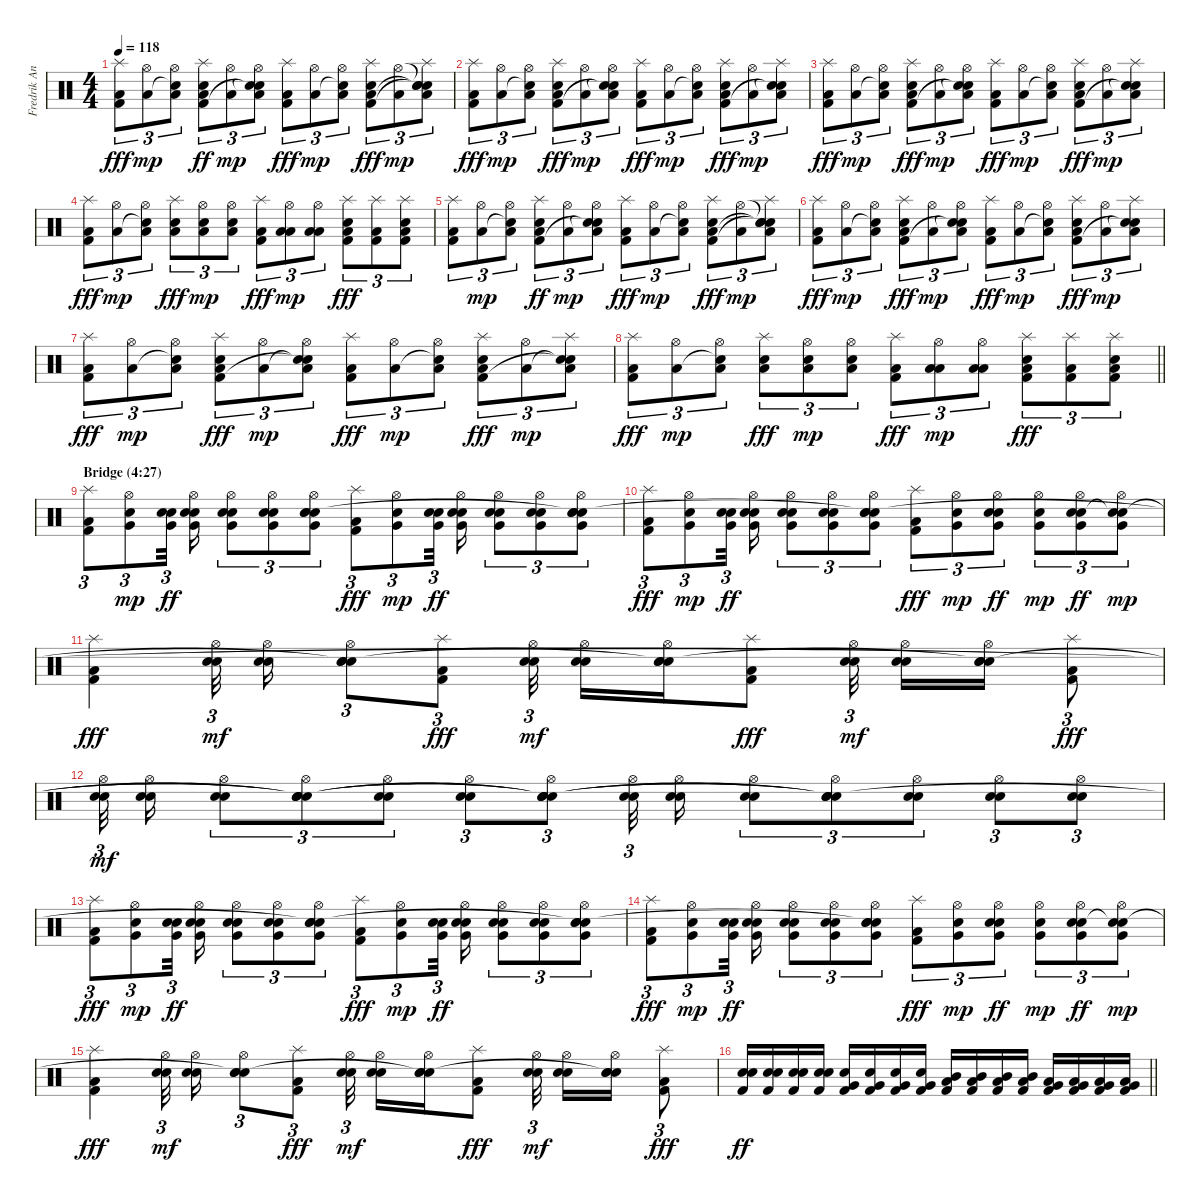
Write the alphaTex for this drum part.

\track ("Fredrik Andersson " "Fredrik An") {instrument percussion}
\staff {score}
\articulation defaults
\ts (4 4)
\tempo 118
\clef neutral
\ks c
("Splash (hit)" "Kick (hit) 2" "Low Floor Tom (hit)").8{tu (3 2) dy fff} ("Hi-Hat (open)" "Low Floor Tom (hit)").8{tu (3 2) dy mp} ("Hi-Hat (open)" "Snare (hit)"{t} "Low Floor Tom (hit)").8{tu (3 2)} ("Splash (hit)" "Snare (hit) 2" "Kick (hit) 2" "Low Floor Tom (hit)").8{tu (3 2) dy ff} ("Hi-Hat (open)" "Low Floor Tom (hit)").8{tu (3 2) dy mp} ("Hi-Hat (open)" "Snare (hit)"{t} "Snare (hit)"{t} "Low Floor Tom (hit)").8{tu (3 2)} ("Splash (hit)" "Kick (hit) 2" "Low Floor Tom (hit)").8{tu (3 2) dy fff} ("Hi-Hat (open)" "Low Floor Tom (hit)").8{tu (3 2) dy mp} ("Hi-Hat (open)" "Snare (hit)"{t} "Low Floor Tom (hit)").8{tu (3 2)} ("Splash (hit)" "Snare (hit) 2" "Kick (hit) 2" "Low Floor Tom (hit)").8{tu (3 2) dy fff} ("Hi-Hat (open)" "Low Floor Tom (hit)").8{tu (3 2) dy mp} ("Snare (hit)"{t} "Splash (hit)" "Snare (hit)"{t} "Snare (hit)"{t} "Low Floor Tom (hit)").8{tu (3 2)} |
("Splash (hit)" "Kick (hit) 2" "Low Floor Tom (hit)").8{tu (3 2) dy fff} ("Hi-Hat (open)" "Low Floor Tom (hit)").8{tu (3 2) dy mp} ("Hi-Hat (open)" "Snare (hit)"{t} "Low Floor Tom (hit)").8{tu (3 2)} ("Splash (hit)" "Snare (hit) 2" "Kick (hit) 2" "Low Floor Tom (hit)").8{tu (3 2) dy fff} ("Hi-Hat (open)" "Low Floor Tom (hit)").8{tu (3 2) dy mp} ("Hi-Hat (open)" "Snare (hit)"{t} "Snare (hit)"{t} "Low Floor Tom (hit)").8{tu (3 2)} ("Splash (hit)" "Kick (hit) 2" "Low Floor Tom (hit)").8{tu (3 2) dy fff} ("Hi-Hat (open)" "Low Floor Tom (hit)").8{tu (3 2) dy mp} ("Hi-Hat (open)" "Snare (hit)"{t} "Low Floor Tom (hit)").8{tu (3 2)} ("Splash (hit)" "Snare (hit) 2" "Kick (hit) 2" "Low Floor Tom (hit)").8{tu (3 2) dy fff} ("Hi-Hat (open)" "Low Floor Tom (hit)").8{tu (3 2) dy mp} ("Splash (hit)" "Snare (hit)"{t} "Snare (hit)"{t} "Low Floor Tom (hit)").8{tu (3 2)} |
("Splash (hit)" "Kick (hit) 2" "Low Floor Tom (hit)").8{tu (3 2) dy fff} ("Hi-Hat (open)" "Low Floor Tom (hit)").8{tu (3 2) dy mp} ("Hi-Hat (open)" "Snare (hit)"{t} "Low Floor Tom (hit)").8{tu (3 2)} ("Splash (hit)" "Snare (hit) 2" "Kick (hit) 2" "Low Floor Tom (hit)").8{tu (3 2) dy fff} ("Hi-Hat (open)" "Low Floor Tom (hit)").8{tu (3 2) dy mp} ("Hi-Hat (open)" "Snare (hit)"{t} "Snare (hit)"{t} "Low Floor Tom (hit)").8{tu (3 2)} ("Splash (hit)" "Kick (hit) 2" "Low Floor Tom (hit)").8{tu (3 2) dy fff} ("Hi-Hat (open)" "Low Floor Tom (hit)").8{tu (3 2) dy mp} ("Hi-Hat (open)" "Snare (hit)"{t} "Low Floor Tom (hit)").8{tu (3 2)} ("Splash (hit)" "Snare (hit) 2" "Kick (hit) 2" "Low Floor Tom (hit)").8{tu (3 2) dy fff} ("Hi-Hat (open)" "Low Floor Tom (hit)").8{tu (3 2) dy mp} ("Splash (hit)" "Snare (hit)"{t} "Snare (hit)"{t} "Low Floor Tom (hit)").8{tu (3 2)} |
("Splash (hit)" "Kick (hit) 2" "Low Floor Tom (hit)").8{tu (3 2) dy fff} ("Hi-Hat (open)" "Low Floor Tom (hit)").8{tu (3 2) dy mp} ("Hi-Hat (open)" "Snare (hit)"{t} "Low Floor Tom (hit)").8{tu (3 2)} ("Splash (hit)" "Snare (hit) 2" "Low Floor Tom (hit)").8{tu (3 2) dy fff} ("Hi-Hat (open)" "Snare (hit) 2" "Low Floor Tom (hit)").8{tu (3 2) dy mp} ("Hi-Hat (open)" "Snare (hit) 2" "Low Floor Tom (hit)").8{tu (3 2)} ("Splash (hit)" "Kick (hit) 2" "Low Floor Tom (hit)").8{tu (3 2) dy fff} ("Hi-Hat (open)" "Low Tom (hit)" "Low Floor Tom (hit)").8{tu (3 2) dy mp} ("Hi-Hat (open)" "Low Tom (hit)" "Low Floor Tom (hit)").8{tu (3 2)} ("Splash (hit)" "Snare (hit) 2" "Kick (hit) 2" "Low Floor Tom (hit)").8{tu (3 2) dy fff} ("Splash (hit)" "Kick (hit) 2" "Low Floor Tom (hit)").8{tu (3 2)} ("Splash (hit)" "Snare (hit) 2" "Kick (hit) 2" "Low Floor Tom (hit)").8{tu (3 2)} |
("Splash (hit)" "Kick (hit) 2" "Low Floor Tom (hit)").8{tu (3 2)} ("Hi-Hat (open)" "Low Floor Tom (hit)").8{tu (3 2) dy mp} ("Hi-Hat (open)" "Snare (hit)"{t} "Low Floor Tom (hit)").8{tu (3 2)} ("Splash (hit)" "Snare (hit) 2" "Kick (hit) 2" "Low Floor Tom (hit)").8{tu (3 2) dy ff} ("Hi-Hat (open)" "Low Floor Tom (hit)").8{tu (3 2) dy mp} ("Hi-Hat (open)" "Snare (hit)"{t} "Snare (hit)"{t} "Low Floor Tom (hit)").8{tu (3 2)} ("Splash (hit)" "Kick (hit) 2" "Low Floor Tom (hit)").8{tu (3 2) dy fff} ("Hi-Hat (open)" "Low Floor Tom (hit)").8{tu (3 2) dy mp} ("Hi-Hat (open)" "Snare (hit)"{t} "Low Floor Tom (hit)").8{tu (3 2)} ("Splash (hit)" "Snare (hit) 2" "Kick (hit) 2" "Low Floor Tom (hit)").8{tu (3 2) dy fff} ("Hi-Hat (open)" "Low Floor Tom (hit)").8{tu (3 2) dy mp} ("Snare (hit)"{t} "Splash (hit)" "Snare (hit)"{t} "Snare (hit)"{t} "Low Floor Tom (hit)").8{tu (3 2)} |
("Splash (hit)" "Kick (hit) 2" "Low Floor Tom (hit)").8{tu (3 2) dy fff} ("Hi-Hat (open)" "Low Floor Tom (hit)").8{tu (3 2) dy mp} ("Hi-Hat (open)" "Snare (hit)"{t} "Low Floor Tom (hit)").8{tu (3 2)} ("Splash (hit)" "Snare (hit) 2" "Kick (hit) 2" "Low Floor Tom (hit)").8{tu (3 2) dy fff} ("Hi-Hat (open)" "Low Floor Tom (hit)").8{tu (3 2) dy mp} ("Hi-Hat (open)" "Snare (hit)"{t} "Snare (hit)"{t} "Low Floor Tom (hit)").8{tu (3 2)} ("Splash (hit)" "Kick (hit) 2" "Low Floor Tom (hit)").8{tu (3 2) dy fff} ("Hi-Hat (open)" "Low Floor Tom (hit)").8{tu (3 2) dy mp} ("Hi-Hat (open)" "Snare (hit)"{t} "Low Floor Tom (hit)").8{tu (3 2)} ("Splash (hit)" "Snare (hit) 2" "Kick (hit) 2" "Low Floor Tom (hit)").8{tu (3 2) dy fff} ("Hi-Hat (open)" "Low Floor Tom (hit)").8{tu (3 2) dy mp} ("Splash (hit)" "Snare (hit)"{t} "Snare (hit)"{t} "Low Floor Tom (hit)").8{tu (3 2)} |
("Splash (hit)" "Kick (hit) 2" "Low Floor Tom (hit)").8{tu (3 2) dy fff} ("Hi-Hat (open)" "Low Floor Tom (hit)").8{tu (3 2) dy mp} ("Hi-Hat (open)" "Snare (hit)"{t} "Low Floor Tom (hit)").8{tu (3 2)} ("Splash (hit)" "Snare (hit) 2" "Kick (hit) 2" "Low Floor Tom (hit)").8{tu (3 2) dy fff} ("Hi-Hat (open)" "Low Floor Tom (hit)").8{tu (3 2) dy mp} ("Hi-Hat (open)" "Snare (hit)"{t} "Snare (hit)"{t} "Low Floor Tom (hit)").8{tu (3 2)} ("Splash (hit)" "Kick (hit) 2" "Low Floor Tom (hit)").8{tu (3 2) dy fff} ("Hi-Hat (open)" "Low Floor Tom (hit)").8{tu (3 2) dy mp} ("Hi-Hat (open)" "Snare (hit)"{t} "Low Floor Tom (hit)").8{tu (3 2)} ("Splash (hit)" "Snare (hit) 2" "Kick (hit) 2" "Low Floor Tom (hit)").8{tu (3 2) dy fff} ("Hi-Hat (open)" "Low Floor Tom (hit)").8{tu (3 2) dy mp} ("Splash (hit)" "Snare (hit)"{t} "Snare (hit)"{t} "Low Floor Tom (hit)").8{tu (3 2)} |
\barLineRight lightlight
("Splash (hit)" "Kick (hit) 2" "Low Floor Tom (hit)").8{tu (3 2) dy fff} ("Hi-Hat (open)" "Low Floor Tom (hit)").8{tu (3 2) dy mp} ("Hi-Hat (open)" "Snare (hit)"{t} "Low Floor Tom (hit)").8{tu (3 2)} ("Splash (hit)" "Snare (hit) 2" "Low Floor Tom (hit)").8{tu (3 2) dy fff} ("Hi-Hat (open)" "Snare (hit) 2" "Low Floor Tom (hit)").8{tu (3 2) dy mp} ("Hi-Hat (open)" "Snare (hit) 2" "Low Floor Tom (hit)").8{tu (3 2)} ("Splash (hit)" "Kick (hit) 2" "Low Floor Tom (hit)").8{tu (3 2) dy fff} ("Hi-Hat (open)" "Low Tom (hit)" "Low Floor Tom (hit)").8{tu (3 2) dy mp} ("Hi-Hat (open)" "Low Tom (hit)" "Low Floor Tom (hit)").8{tu (3 2)} ("Splash (hit)" "Snare (hit) 2" "Kick (hit) 2" "Low Floor Tom (hit)").8{tu (3 2) dy fff} ("Splash (hit)" "Kick (hit) 2" "Low Floor Tom (hit)").8{tu (3 2)} ("Splash (hit)" "Snare (hit) 2" "Kick (hit) 2" "Low Floor Tom (hit)").8{tu (3 2)} |
\section ("" "Bridge (4:27)")
("Splash (hit)" "Kick (hit) 2" "Low Floor Tom (hit)").8{tu (3 2)} ("Hi-Hat (open)" "Very Low Tom (hit)" "Snare (hit) 2").8{tu (3 2) dy mp} ("Very Low Tom (hit)" "Snare (hit) 2" "Electric Snare (hit)").32{tu (3 2) dy ff beam splitsecondary} ("Hi-Hat (open)" "Very Low Tom (hit)" "Snare (hit) 2" "Electric Snare (hit)").16 ("Hi-Hat (open)" "Very Low Tom (hit)" "Snare (hit) 2" "Electric Snare (hit)").8{tu (3 2)} ("Hi-Hat (open)" "Very Low Tom (hit)" "Snare (hit) 2" "Electric Snare (hit)").8{tu (3 2)} ("Hi-Hat (open)" "Very Low Tom (hit)" "Snare (hit) 2" "Electric Snare (hit)" "Snare (hit)").8{tu (3 2)} ("Splash (hit)" "Kick (hit) 2" "Low Floor Tom (hit)").8{tu (3 2) dy fff} ("Hi-Hat (open)" "Very Low Tom (hit)" "Snare (hit) 2").8{tu (3 2) dy mp} ("Very Low Tom (hit)" "Snare (hit) 2" "Electric Snare (hit)").32{tu (3 2) dy ff beam splitsecondary} ("Hi-Hat (open)" "Very Low Tom (hit)" "Snare (hit) 2" "Electric Snare (hit)").16 ("Hi-Hat (open)" "Very Low Tom (hit)" "Snare (hit) 2" "Electric Snare (hit)").8{tu (3 2)} ("Hi-Hat (open)" "Very Low Tom (hit)" "Snare (hit) 2" "Electric Snare (hit)").8{tu (3 2)} ("Hi-Hat (open)" "Very Low Tom (hit)" "Snare (hit) 2" "Electric Snare (hit)" "Snare (hit)"{t}).8{tu (3 2)} |
("Splash (hit)" "Kick (hit) 2" "Low Floor Tom (hit)").8{tu (3 2) dy fff} ("Hi-Hat (open)" "Very Low Tom (hit)" "Snare (hit) 2").8{tu (3 2) dy mp} ("Very Low Tom (hit)" "Snare (hit) 2" "Electric Snare (hit)").32{tu (3 2) dy ff beam splitsecondary} ("Hi-Hat (open)" "Very Low Tom (hit)" "Snare (hit) 2" "Electric Snare (hit)").16 ("Hi-Hat (open)" "Very Low Tom (hit)" "Snare (hit) 2" "Electric Snare (hit)").8{tu (3 2)} ("Hi-Hat (open)" "Very Low Tom (hit)" "Snare (hit) 2" "Electric Snare (hit)").8{tu (3 2)} ("Hi-Hat (open)" "Very Low Tom (hit)" "Snare (hit) 2" "Electric Snare (hit)" "Snare (hit)"{t}).8{tu (3 2)} ("Splash (hit)" "Kick (hit) 2" "Low Floor Tom (hit)").8{tu (3 2) dy fff} ("Hi-Hat (open)" "Very Low Tom (hit)" "Snare (hit) 2").8{tu (3 2) dy mp} ("Hi-Hat (open)" "Very Low Tom (hit)" "Snare (hit) 2" "Electric Snare (hit)").8{tu (3 2) dy ff} ("Hi-Hat (open)" "Very Low Tom (hit)" "Snare (hit) 2").8{tu (3 2) dy mp} ("Hi-Hat (open)" "Very Low Tom (hit)" "Snare (hit) 2" "Electric Snare (hit)").8{tu (3 2) dy ff} ("Hi-Hat (open)" "Very Low Tom (hit)" "Snare (hit) 2" "Snare (hit)"{t}).8{tu (3 2) dy mp} |
("Splash (hit)" "Kick (hit) 2" "Low Floor Tom (hit)").4{dy fff} ("Hi-Hat (open)" "Snare (hit) 2" "Electric Snare (hit)").32{tu (3 2) dy mf beam splitsecondary} ("Hi-Hat (open)" "Snare (hit) 2" "Electric Snare (hit)").16 ("Hi-Hat (open)" "Snare (hit) 2" "Electric Snare (hit)" "Snare (hit)"{t}).8{tu (3 2)} ("Splash (hit)" "Kick (hit) 2" "Low Floor Tom (hit)").8{tu (3 2) dy fff} ("Hi-Hat (open)" "Snare (hit) 2" "Electric Snare (hit)").32{tu (3 2) dy mf beam splitsecondary} ("Hi-Hat (open)" "Snare (hit) 2" "Electric Snare (hit)").16 ("Hi-Hat (open)" "Snare (hit) 2" "Electric Snare (hit)" "Snare (hit)"{t}).16 ("Splash (hit)" "Kick (hit) 2" "Low Floor Tom (hit)").8{dy fff} ("Hi-Hat (open)" "Snare (hit) 2" "Electric Snare (hit)").32{tu (3 2) dy mf beam splitsecondary} ("Hi-Hat (open)" "Snare (hit) 2" "Electric Snare (hit)").16 ("Hi-Hat (open)" "Snare (hit) 2" "Electric Snare (hit)" "Snare (hit)"{t}).16 ("Splash (hit)" "Kick (hit) 2" "Low Floor Tom (hit)").8{tu (3 2) dy fff} |
("Hi-Hat (open)" "Snare (hit) 2" "Electric Snare (hit)").32{tu (3 2) dy mf beam splitsecondary} ("Hi-Hat (open)" "Snare (hit) 2" "Electric Snare (hit)").16 ("Hi-Hat (open)" "Snare (hit) 2" "Electric Snare (hit)").8{tu (3 2)} ("Hi-Hat (open)" "Snare (hit) 2" "Electric Snare (hit)" "Snare (hit)"{t} "Snare (hit)"{t}).8{tu (3 2)} ("Hi-Hat (open)" "Snare (hit) 2" "Electric Snare (hit)").8{tu (3 2)} ("Hi-Hat (open)" "Snare (hit) 2" "Electric Snare (hit)").8{tu (3 2)} ("Hi-Hat (open)" "Snare (hit) 2" "Electric Snare (hit)" "Snare (hit)"{t} "Snare (hit)"{t}).8{tu (3 2)} ("Hi-Hat (open)" "Snare (hit) 2" "Electric Snare (hit)").32{tu (3 2) beam splitsecondary} ("Hi-Hat (open)" "Snare (hit) 2" "Electric Snare (hit)").16 ("Hi-Hat (open)" "Snare (hit) 2" "Electric Snare (hit)").8{tu (3 2)} ("Hi-Hat (open)" "Snare (hit) 2" "Electric Snare (hit)" "Snare (hit)"{t} "Snare (hit)"{t}).8{tu (3 2)} ("Hi-Hat (open)" "Snare (hit) 2" "Electric Snare (hit)").8{tu (3 2)} ("Hi-Hat (open)" "Snare (hit) 2" "Electric Snare (hit)").8{tu (3 2)} ("Hi-Hat (open)" "Snare (hit) 2" "Electric Snare (hit)").8{tu (3 2)} |
("Splash (hit)" "Kick (hit) 2" "Low Floor Tom (hit)").8{tu (3 2) dy fff} ("Hi-Hat (open)" "Very Low Tom (hit)" "Snare (hit) 2").8{tu (3 2) dy mp} ("Very Low Tom (hit)" "Snare (hit) 2" "Electric Snare (hit)").32{tu (3 2) dy ff beam splitsecondary} ("Hi-Hat (open)" "Very Low Tom (hit)" "Snare (hit) 2" "Electric Snare (hit)").16 ("Hi-Hat (open)" "Very Low Tom (hit)" "Snare (hit) 2" "Electric Snare (hit)").8{tu (3 2)} ("Hi-Hat (open)" "Very Low Tom (hit)" "Snare (hit) 2" "Electric Snare (hit)").8{tu (3 2)} ("Hi-Hat (open)" "Very Low Tom (hit)" "Snare (hit) 2" "Electric Snare (hit)" "Snare (hit)"{t}).8{tu (3 2)} ("Splash (hit)" "Kick (hit) 2" "Low Floor Tom (hit)").8{tu (3 2) dy fff} ("Hi-Hat (open)" "Very Low Tom (hit)" "Snare (hit) 2").8{tu (3 2) dy mp} ("Very Low Tom (hit)" "Snare (hit) 2" "Electric Snare (hit)").32{tu (3 2) dy ff beam splitsecondary} ("Hi-Hat (open)" "Very Low Tom (hit)" "Snare (hit) 2" "Electric Snare (hit)").16 ("Hi-Hat (open)" "Very Low Tom (hit)" "Snare (hit) 2" "Electric Snare (hit)").8{tu (3 2)} ("Hi-Hat (open)" "Very Low Tom (hit)" "Snare (hit) 2" "Electric Snare (hit)").8{tu (3 2)} ("Hi-Hat (open)" "Very Low Tom (hit)" "Snare (hit) 2" "Electric Snare (hit)" "Snare (hit)"{t}).8{tu (3 2)} |
("Splash (hit)" "Kick (hit) 2" "Low Floor Tom (hit)").8{tu (3 2) dy fff} ("Hi-Hat (open)" "Very Low Tom (hit)" "Snare (hit) 2").8{tu (3 2) dy mp} ("Very Low Tom (hit)" "Snare (hit) 2" "Electric Snare (hit)").32{tu (3 2) dy ff beam splitsecondary} ("Hi-Hat (open)" "Very Low Tom (hit)" "Snare (hit) 2" "Electric Snare (hit)").16 ("Hi-Hat (open)" "Very Low Tom (hit)" "Snare (hit) 2" "Electric Snare (hit)").8{tu (3 2)} ("Hi-Hat (open)" "Very Low Tom (hit)" "Snare (hit) 2" "Electric Snare (hit)").8{tu (3 2)} ("Hi-Hat (open)" "Very Low Tom (hit)" "Snare (hit) 2" "Electric Snare (hit)" "Snare (hit)"{t}).8{tu (3 2)} ("Splash (hit)" "Kick (hit) 2" "Low Floor Tom (hit)").8{tu (3 2) dy fff} ("Hi-Hat (open)" "Very Low Tom (hit)" "Snare (hit) 2").8{tu (3 2) dy mp} ("Hi-Hat (open)" "Very Low Tom (hit)" "Snare (hit) 2" "Electric Snare (hit)").8{tu (3 2) dy ff} ("Hi-Hat (open)" "Very Low Tom (hit)" "Snare (hit) 2").8{tu (3 2) dy mp} ("Hi-Hat (open)" "Very Low Tom (hit)" "Snare (hit) 2" "Electric Snare (hit)").8{tu (3 2) dy ff} ("Hi-Hat (open)" "Very Low Tom (hit)" "Snare (hit) 2" "Snare (hit)"{t}).8{tu (3 2) dy mp} |
("Splash (hit)" "Kick (hit) 2" "Low Floor Tom (hit)").4{dy fff} ("Hi-Hat (open)" "Snare (hit) 2" "Electric Snare (hit)").32{tu (3 2) dy mf beam splitsecondary} ("Hi-Hat (open)" "Snare (hit) 2" "Electric Snare (hit)").16 ("Hi-Hat (open)" "Snare (hit) 2" "Electric Snare (hit)" "Snare (hit)"{t}).8{tu (3 2)} ("Splash (hit)" "Kick (hit) 2" "Low Floor Tom (hit)").8{tu (3 2) dy fff} ("Hi-Hat (open)" "Snare (hit) 2" "Electric Snare (hit)").32{tu (3 2) dy mf beam splitsecondary} ("Hi-Hat (open)" "Snare (hit) 2" "Electric Snare (hit)").16 ("Hi-Hat (open)" "Snare (hit) 2" "Electric Snare (hit)" "Snare (hit)"{t}).16 ("Splash (hit)" "Kick (hit) 2" "Low Floor Tom (hit)").8{dy fff} ("Hi-Hat (open)" "Snare (hit) 2" "Electric Snare (hit)").32{tu (3 2) dy mf beam splitsecondary} ("Hi-Hat (open)" "Snare (hit) 2" "Electric Snare (hit)").16 ("Hi-Hat (open)" "Snare (hit) 2" "Electric Snare (hit)" "Snare (hit)"{t}).16 ("Splash (hit)" "Kick (hit) 2" "Low Floor Tom (hit)").8{tu (3 2) dy fff} |
\barLineRight lightlight
("Snare (hit) 2" "Electric Snare (hit)" "Kick (hit) 2").16{dy ff} ("Snare (hit) 2" "Electric Snare (hit)" "Kick (hit) 2").16 ("Snare (hit) 2" "Electric Snare (hit)" "Kick (hit) 2").16 ("Snare (hit) 2" "Electric Snare (hit)" "Kick (hit) 2").16 ("Snare (hit) 2" "Very Low Tom (hit)" "Kick (hit) 2").16 ("Snare (hit) 2" "Very Low Tom (hit)" "Kick (hit) 2").16 ("Snare (hit) 2" "Very Low Tom (hit)" "Kick (hit) 2").16 ("Snare (hit) 2" "Very Low Tom (hit)" "Kick (hit) 2").16 ("Mid Tom (hit)" "Low Floor Tom (hit)" "Kick (hit) 2").16 ("Mid Tom (hit)" "Low Floor Tom (hit)" "Kick (hit) 2").16 ("Mid Tom (hit)" "Low Floor Tom (hit)" "Kick (hit) 2").16 ("Mid Tom (hit)" "Low Floor Tom (hit)" "Kick (hit) 2").16 ("Very Low Tom (hit)" "Low Floor Tom (hit)" "Kick (hit) 2").16 ("Very Low Tom (hit)" "Low Floor Tom (hit)" "Kick (hit) 2").16 ("Very Low Tom (hit)" "Low Floor Tom (hit)" "Kick (hit) 2").16 ("Very Low Tom (hit)" "Low Floor Tom (hit)" "Kick (hit) 2").16
